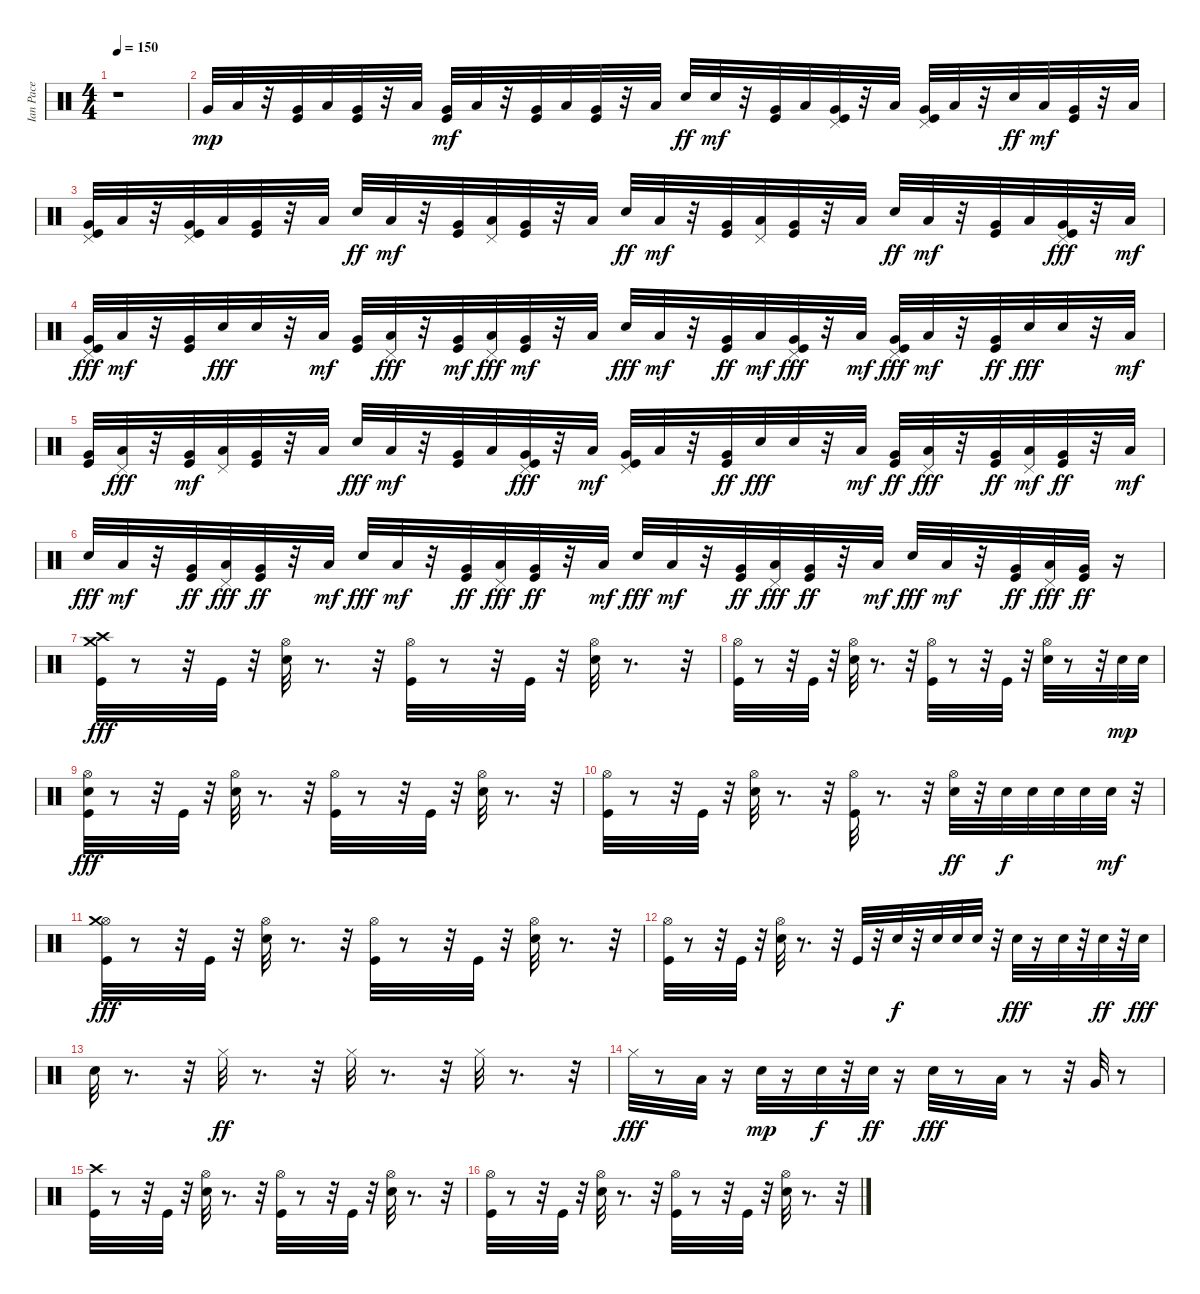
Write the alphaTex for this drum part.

\track ("Ian Pace" "Ian Pace") {instrument percussion}
\staff {score}
\articulation defaults
\ts (4 4)
\tempo 150
\clef neutral
\ks c
r.1{dy mp} |
"Very Low Tom (hit)".32 "Low Floor Tom (hit)".32 r.32 ("Kick (hit)" "Very Low Tom (hit)").32 "Low Floor Tom (hit)".32 ("Kick (hit)" "Very Low Tom (hit)").32 r.32 "Low Floor Tom (hit)".32 ("Very Low Tom (hit)" "Kick (hit)").32{dy mf} "Low Floor Tom (hit)".32 r.32 ("Kick (hit)" "Very Low Tom (hit)").32 "Low Floor Tom (hit)".32 ("Kick (hit)" "Very Low Tom (hit)").32 r.32 "Low Floor Tom (hit)".32 "Electric Snare (hit)".32{dy ff} "Electric Snare (hit)".32{dy mf} r.32 ("Kick (hit)" "Very Low Tom (hit)").32 "Low Floor Tom (hit)".32 ("Pedal Hi-Hat (hit)" "Very Low Tom (hit)" "Kick (hit)").32 r.32 "Low Floor Tom (hit)".32 ("Pedal Hi-Hat (hit)" "Kick (hit)" "Very Low Tom (hit)").32 "Low Floor Tom (hit)".32 r.32 "Electric Snare (hit)".32{dy ff} "Low Floor Tom (hit)".32{dy mf} ("Kick (hit)" "Very Low Tom (hit)").32 r.32 "Low Floor Tom (hit)".32 |
("Pedal Hi-Hat (hit)" "Kick (hit)" "Very Low Tom (hit)").32 "Low Floor Tom (hit)".32 r.32 ("Pedal Hi-Hat (hit)" "Kick (hit)" "Very Low Tom (hit)").32 "Low Floor Tom (hit)".32 ("Kick (hit)" "Very Low Tom (hit)").32 r.32 "Low Floor Tom (hit)".32 "Electric Snare (hit)".32{dy ff} "Low Floor Tom (hit)".32{dy mf} r.32 ("Kick (hit)" "Very Low Tom (hit)").32 ("Pedal Hi-Hat (hit)" "Low Floor Tom (hit)").32 ("Kick (hit)" "Very Low Tom (hit)").32 r.32 "Low Floor Tom (hit)".32 "Electric Snare (hit)".32{dy ff} "Low Floor Tom (hit)".32{dy mf} r.32 ("Kick (hit)" "Very Low Tom (hit)").32 ("Pedal Hi-Hat (hit)" "Low Floor Tom (hit)").32 ("Kick (hit)" "Very Low Tom (hit)").32 r.32 "Low Floor Tom (hit)".32 "Electric Snare (hit)".32{dy ff} "Low Floor Tom (hit)".32{dy mf} r.32 ("Kick (hit)" "Very Low Tom (hit)").32 "Low Floor Tom (hit)".32 ("Kick (hit)" "Very Low Tom (hit)" "Pedal Hi-Hat (hit)").32{dy fff} r.32 "Low Floor Tom (hit)".32{dy mf} |
("Kick (hit)" "Very Low Tom (hit)" "Pedal Hi-Hat (hit)").32{dy fff} "Low Floor Tom (hit)".32{dy mf} r.32 ("Kick (hit)" "Very Low Tom (hit)").32 "Electric Snare (hit)".32{dy fff} "Electric Snare (hit)".32 r.32 "Low Floor Tom (hit)".32{dy mf} ("Kick (hit)" "Very Low Tom (hit)").32 ("Low Floor Tom (hit)" "Pedal Hi-Hat (hit)").32{dy fff} r.32 ("Kick (hit)" "Very Low Tom (hit)").32{dy mf} ("Low Floor Tom (hit)" "Pedal Hi-Hat (hit)").32{dy fff} ("Kick (hit)" "Very Low Tom (hit)").32{dy mf} r.32 "Low Floor Tom (hit)".32 "Electric Snare (hit)".32{dy fff} "Low Floor Tom (hit)".32{dy mf} r.32 ("Very Low Tom (hit)" "Kick (hit)").32{dy ff} "Low Floor Tom (hit)".32{dy mf} ("Very Low Tom (hit)" "Kick (hit)" "Pedal Hi-Hat (hit)").32{dy fff} r.32 "Low Floor Tom (hit)".32{dy mf} ("Very Low Tom (hit)" "Kick (hit)" "Pedal Hi-Hat (hit)").32{dy fff} "Low Floor Tom (hit)".32{dy mf} r.32 ("Very Low Tom (hit)" "Kick (hit)").32{dy ff} "Electric Snare (hit)".32{dy fff} "Electric Snare (hit)".32 r.32 "Low Floor Tom (hit)".32{dy mf} |
("Kick (hit)" "Very Low Tom (hit)").32 ("Low Floor Tom (hit)" "Pedal Hi-Hat (hit)").32{dy fff} r.32 ("Kick (hit)" "Very Low Tom (hit)").32{dy mf} ("Pedal Hi-Hat (hit)" "Low Floor Tom (hit)").32 ("Kick (hit)" "Very Low Tom (hit)").32 r.32 "Low Floor Tom (hit)".32 "Electric Snare (hit)".32{dy fff} "Low Floor Tom (hit)".32{dy mf} r.32 ("Kick (hit)" "Very Low Tom (hit)").32 "Low Floor Tom (hit)".32 ("Kick (hit)" "Very Low Tom (hit)" "Pedal Hi-Hat (hit)").32{dy fff} r.32 "Low Floor Tom (hit)".32{dy mf} ("Pedal Hi-Hat (hit)" "Kick (hit)" "Very Low Tom (hit)").32 "Low Floor Tom (hit)".32 r.32 ("Very Low Tom (hit)" "Kick (hit)").32{dy ff} "Electric Snare (hit)".32{dy fff} "Electric Snare (hit)".32 r.32 "Low Floor Tom (hit)".32{dy mf} ("Very Low Tom (hit)" "Kick (hit)").32{dy ff} ("Low Floor Tom (hit)" "Pedal Hi-Hat (hit)").32{dy fff} r.32 ("Very Low Tom (hit)" "Kick (hit)").32{dy ff} ("Pedal Hi-Hat (hit)" "Low Floor Tom (hit)").32{dy mf} ("Very Low Tom (hit)" "Kick (hit)").32{dy ff} r.32 "Low Floor Tom (hit)".32{dy mf} |
"Electric Snare (hit)".32{dy fff} "Low Floor Tom (hit)".32{dy mf} r.32 ("Very Low Tom (hit)" "Kick (hit)").32{dy ff} ("Low Floor Tom (hit)" "Pedal Hi-Hat (hit)").32{dy fff} ("Very Low Tom (hit)" "Kick (hit)").32{dy ff} r.32 "Low Floor Tom (hit)".32{dy mf} "Electric Snare (hit)".32{dy fff} "Low Floor Tom (hit)".32{dy mf} r.32 ("Very Low Tom (hit)" "Kick (hit)").32{dy ff} ("Low Floor Tom (hit)" "Pedal Hi-Hat (hit)").32{dy fff} ("Very Low Tom (hit)" "Kick (hit)").32{dy ff} r.32 "Low Floor Tom (hit)".32{dy mf} "Electric Snare (hit)".32{dy fff} "Low Floor Tom (hit)".32{dy mf} r.32 ("Very Low Tom (hit)" "Kick (hit)").32{dy ff} ("Low Floor Tom (hit)" "Pedal Hi-Hat (hit)").32{dy fff} ("Very Low Tom (hit)" "Kick (hit)").32{dy ff} r.32 "Low Floor Tom (hit)".32{dy mf} "Electric Snare (hit)".32{dy fff} "Low Floor Tom (hit)".32{dy mf} r.32 ("Very Low Tom (hit)" "Kick (hit)").32{dy ff} ("Low Floor Tom (hit)" "Pedal Hi-Hat (hit)").32{dy fff} ("Very Low Tom (hit)" "Kick (hit)").32{dy ff} r.16 |
("Crash medium (hit)" "Kick (hit)" "Crash high (hit)").32{dy fff} r.8 r.32 "Kick (hit)".32 r.32 ("Hi-Hat (open)" "Electric Snare (hit)").32 r.8{d} r.32 ("Hi-Hat (open)" "Kick (hit)").32 r.8 r.32 "Kick (hit)".32 r.32 ("Hi-Hat (open)" "Electric Snare (hit)").32 r.8{d} r.32 |
("Hi-Hat (open)" "Kick (hit)").32 r.8 r.32 "Kick (hit)".32 r.32 ("Hi-Hat (open)" "Electric Snare (hit)").32 r.8{d} r.32 ("Hi-Hat (open)" "Kick (hit)").32 r.8 r.32 "Kick (hit)".32 r.32 ("Hi-Hat (open)" "Electric Snare (hit)").32 r.8 r.32 "Electric Snare (hit)".32{dy mp} "Electric Snare (hit)".32 |
("Electric Snare (hit)" "Kick (hit)" "Hi-Hat (open)").32{dy fff} r.8 r.32 "Kick (hit)".32 r.32 ("Hi-Hat (open)" "Electric Snare (hit)").32 r.8{d} r.32 ("Hi-Hat (open)" "Kick (hit)").32 r.8 r.32 "Kick (hit)".32 r.32 ("Hi-Hat (open)" "Electric Snare (hit)").32 r.8{d} r.32 |
("Hi-Hat (open)" "Kick (hit)").32 r.8 r.32 "Kick (hit)".32 r.32 ("Hi-Hat (open)" "Electric Snare (hit)").32 r.8{d} r.32 ("Hi-Hat (open)" "Kick (hit)").32 r.8{d} r.32 ("Hi-Hat (open)" "Electric Snare (hit)").32{dy ff} r.32 "Electric Snare (hit)".32{dy f} "Electric Snare (hit)".32 "Electric Snare (hit)".32 "Electric Snare (hit)".32 "Electric Snare (hit)".32{dy mf} r.32 |
("Hi-Hat (open)" "Kick (hit)" "Crash medium (hit)").32{dy fff} r.8 r.32 "Kick (hit)".32 r.32 ("Hi-Hat (open)" "Electric Snare (hit)").32 r.8{d} r.32 ("Hi-Hat (open)" "Kick (hit)").32 r.8 r.32 "Kick (hit)".32 r.32 ("Hi-Hat (open)" "Electric Snare (hit)").32 r.8{d} r.32 |
("Hi-Hat (open)" "Kick (hit)").32 r.8 r.32 "Kick (hit)".32 r.32 ("Hi-Hat (open)" "Electric Snare (hit)").32 r.8{d} r.32 "Kick (hit)".32 r.32 "Electric Snare (hit)".32{dy f} r.32 "Electric Snare (hit)".32 "Electric Snare (hit)".32 "Electric Snare (hit)".32 r.32 "Electric Snare (hit)".32{dy fff} r.16 "Electric Snare (hit)".32 r.32 "Electric Snare (hit)".32{dy ff} r.32 "Electric Snare (hit)".32{dy fff} |
"Electric Snare (hit)".32 r.8{d} r.32 "Hi-Hat (closed)".32{dy ff} r.8{d} r.32 "Hi-Hat (closed)".32 r.8{d} r.32 "Hi-Hat (closed)".32 r.8{d} r.32 |
"Hi-Hat (closed)".32{dy fff} r.8 "Low Tom (hit)".32 r.16 "Electric Snare (hit)".32{dy mp} r.16 "Electric Snare (hit)".32{dy f} r.32 "Electric Snare (hit)".32{dy ff} r.16 "Electric Snare (hit)".32{dy fff} r.8 "Low Tom (hit)".32 r.8 r.32 "Very Low Tom (hit)".32 r.8 |
("Crash high (hit)" "Kick (hit)").32 r.8 r.32 "Kick (hit)".32 r.32 ("Hi-Hat (open)" "Electric Snare (hit)").32 r.8{d} r.32 ("Hi-Hat (open)" "Kick (hit)").32 r.8 r.32 "Kick (hit)".32 r.32 ("Hi-Hat (open)" "Electric Snare (hit)").32 r.8{d} r.32 |
("Hi-Hat (open)" "Kick (hit)").32 r.8 r.32 "Kick (hit)".32 r.32 ("Hi-Hat (open)" "Electric Snare (hit)").32 r.8{d} r.32 ("Hi-Hat (open)" "Kick (hit)").32 r.8 r.32 "Kick (hit)".32 r.32 ("Hi-Hat (open)" "Electric Snare (hit)").32 r.8{d} r.32
